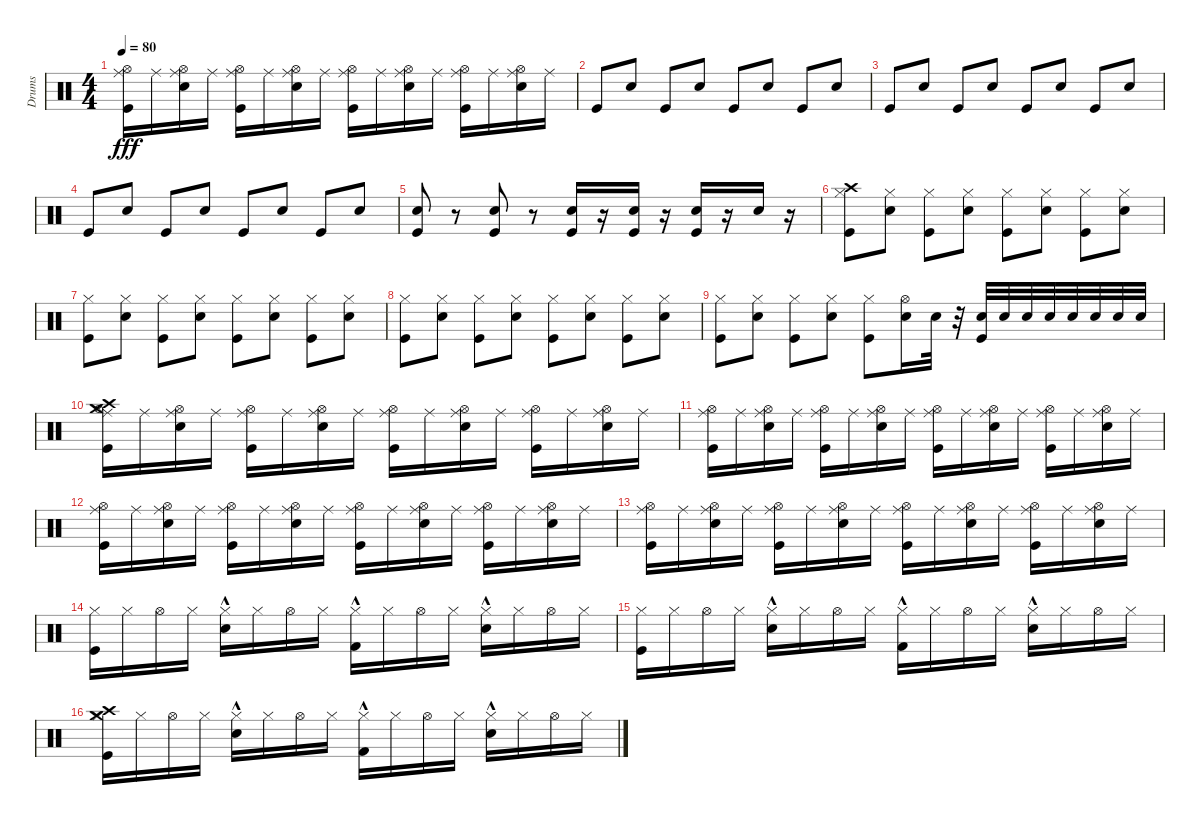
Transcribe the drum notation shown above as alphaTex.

\track ("Drums" "Drums") {instrument percussion}
\staff {score}
\articulation defaults
\ts (4 4)
\tempo 80
\clef neutral
\ks c
("Hi-Hat (open)" "Ride (middle)" "Kick (hit)").16{dy fff} "Ride (middle)".16 ("Snare (hit) 2" "Ride (middle)" "Hi-Hat (open)").16 "Ride (middle)".16 ("Ride (middle)" "Hi-Hat (open)" "Kick (hit)").16 "Ride (middle)".16 ("Ride (middle)" "Hi-Hat (open)" "Snare (hit) 2").16 "Ride (middle)".16 ("Ride (middle)" "Kick (hit)" "Hi-Hat (open)").16 "Ride (middle)".16 ("Hi-Hat (open)" "Ride (middle)" "Snare (hit) 2").16 "Ride (middle)".16 ("Kick (hit)" "Ride (middle)" "Hi-Hat (open)").16 "Ride (middle)".16 ("Snare (hit) 2" "Hi-Hat (open)" "Ride (middle)").16 "Ride (middle)".16 |
"Kick (hit)".8 "Snare (hit) 2".8 "Kick (hit)".8 "Snare (hit) 2".8 "Kick (hit)".8 "Snare (hit) 2".8 "Kick (hit)".8 "Snare (hit) 2".8 |
"Kick (hit)".8 "Snare (hit) 2".8 "Kick (hit)".8 "Snare (hit) 2".8 "Kick (hit)".8 "Snare (hit) 2".8 "Kick (hit)".8 "Snare (hit) 2".8 |
"Kick (hit)".8 "Snare (hit) 2".8 "Kick (hit)".8 "Snare (hit) 2".8 "Kick (hit)".8 "Snare (hit) 2".8 "Kick (hit)".8 "Snare (hit) 2".8 |
("Kick (hit)" "Snare (hit) 2").8 r.8 ("Snare (hit) 2" "Kick (hit)").8 r.8 ("Snare (hit) 2" "Kick (hit)").16 r.16 ("Kick (hit)" "Snare (hit) 2").16 r.16 ("Kick (hit)" "Snare (hit) 2").16 r.16 "Snare (hit) 2".16 r.16 |
("Crash high (hit)" "Kick (hit)" "Hi-Hat (closed)").8 ("Hi-Hat (closed)" "Snare (hit) 2").8 ("Hi-Hat (closed)" "Kick (hit)").8 ("Snare (hit) 2" "Hi-Hat (closed)").8 ("Hi-Hat (closed)" "Kick (hit)").8 ("Hi-Hat (closed)" "Snare (hit) 2").8 ("Hi-Hat (closed)" "Kick (hit)").8 ("Snare (hit) 2" "Hi-Hat (closed)").8 |
("Kick (hit)" "Hi-Hat (closed)").8 ("Snare (hit) 2" "Hi-Hat (closed)").8 ("Kick (hit)" "Hi-Hat (closed)").8 ("Snare (hit) 2" "Hi-Hat (closed)").8 ("Hi-Hat (closed)" "Kick (hit)").8 ("Snare (hit) 2" "Hi-Hat (closed)").8 ("Kick (hit)" "Hi-Hat (closed)").8 ("Snare (hit) 2" "Hi-Hat (closed)").8 |
("Kick (hit)" "Hi-Hat (closed)").8 ("Hi-Hat (closed)" "Snare (hit) 2").8 ("Hi-Hat (closed)" "Kick (hit)").8 ("Hi-Hat (closed)" "Snare (hit) 2").8 ("Hi-Hat (closed)" "Kick (hit)").8 ("Hi-Hat (closed)" "Snare (hit) 2").8 ("Hi-Hat (closed)" "Kick (hit)").8 ("Hi-Hat (closed)" "Snare (hit) 2").8 |
("Hi-Hat (closed)" "Kick (hit)").8 ("Hi-Hat (closed)" "Snare (hit) 2").8 ("Kick (hit)" "Hi-Hat (closed)").8 ("Hi-Hat (closed)" "Snare (hit) 2").8 ("Hi-Hat (closed)" "Kick (hit)").8 ("Hi-Hat (open)" "Snare (hit) 2").16 "Snare (hit) 2".32 r.32 ("Kick (hit)" "Snare (hit) 2").32 "Snare (hit) 2".32 "Snare (hit) 2".32 "Snare (hit) 2".32 "Snare (hit) 2".32 "Snare (hit) 2".32 "Snare (hit) 2".32 "Snare (hit) 2".32 |
("Hi-Hat (open)" "Ride (middle)" "Crash high (hit)" "Crash medium (hit)" "Kick (hit)").16 "Ride (middle)".16 ("Snare (hit) 2" "Ride (middle)" "Hi-Hat (open)").16 "Ride (middle)".16 ("Ride (middle)" "Hi-Hat (open)" "Kick (hit)").16 "Ride (middle)".16 ("Hi-Hat (open)" "Ride (middle)" "Snare (hit) 2").16 "Ride (middle)".16 ("Hi-Hat (open)" "Ride (middle)" "Kick (hit)").16 "Ride (middle)".16 ("Hi-Hat (open)" "Ride (middle)" "Snare (hit) 2").16 "Ride (middle)".16 ("Hi-Hat (open)" "Kick (hit)" "Ride (middle)").16 "Ride (middle)".16 ("Snare (hit) 2" "Ride (middle)" "Hi-Hat (open)").16 "Ride (middle)".16 |
("Hi-Hat (open)" "Ride (middle)" "Kick (hit)").16 "Ride (middle)".16 ("Hi-Hat (open)" "Snare (hit) 2" "Ride (middle)").16 "Ride (middle)".16 ("Kick (hit)" "Hi-Hat (open)" "Ride (middle)").16 "Ride (middle)".16 ("Ride (middle)" "Snare (hit) 2" "Hi-Hat (open)").16 "Ride (middle)".16 ("Ride (middle)" "Hi-Hat (open)" "Kick (hit)").16 "Ride (middle)".16 ("Snare (hit) 2" "Ride (middle)" "Hi-Hat (open)").16 "Ride (middle)".16 ("Kick (hit)" "Ride (middle)" "Hi-Hat (open)").16 "Ride (middle)".16 ("Snare (hit) 2" "Hi-Hat (open)" "Ride (middle)").16 "Ride (middle)".16 |
("Ride (middle)" "Kick (hit)" "Hi-Hat (open)").16 "Ride (middle)".16 ("Hi-Hat (open)" "Snare (hit) 2" "Ride (middle)").16 "Ride (middle)".16 ("Kick (hit)" "Ride (middle)" "Hi-Hat (open)").16 "Ride (middle)".16 ("Ride (middle)" "Hi-Hat (open)" "Snare (hit) 2").16 "Ride (middle)".16 ("Ride (middle)" "Hi-Hat (open)" "Kick (hit)").16 "Ride (middle)".16 ("Hi-Hat (open)" "Ride (middle)" "Snare (hit) 2").16 "Ride (middle)".16 ("Kick (hit)" "Hi-Hat (open)" "Ride (middle)").16 "Ride (middle)".16 ("Ride (middle)" "Hi-Hat (open)" "Snare (hit) 2").16 "Ride (middle)".16 |
("Hi-Hat (open)" "Ride (middle)" "Kick (hit)").16 "Ride (middle)".16 ("Hi-Hat (open)" "Ride (middle)" "Snare (hit) 2").16 "Ride (middle)".16 ("Hi-Hat (open)" "Ride (middle)" "Kick (hit)").16 "Ride (middle)".16 ("Snare (hit) 2" "Hi-Hat (open)" "Ride (middle)").16 "Ride (middle)".16 ("Hi-Hat (open)" "Ride (middle)" "Kick (hit)").16 "Ride (middle)".16 ("Snare (hit) 2" "Hi-Hat (open)" "Ride (middle)").16 "Ride (middle)".16 ("Kick (hit)" "Ride (middle)" "Hi-Hat (open)").16 "Ride (middle)".16 ("Snare (hit) 2" "Hi-Hat (open)" "Ride (middle)").16 "Ride (middle)".16 |
("Hi-Hat (closed)" "Kick (hit)").16 "Hi-Hat (closed)".16 "Hi-Hat (open)".16 "Hi-Hat (closed)".16 ("Hi-Hat (closed)" "Snare (hit) 2"{hac}).16 "Hi-Hat (closed)".16 "Hi-Hat (open)".16 "Hi-Hat (closed)".16 ("Kick (hit) 2"{hac} "Hi-Hat (closed)").16 "Hi-Hat (closed)".16 "Hi-Hat (open)".16 "Hi-Hat (closed)".16 ("Hi-Hat (closed)" "Snare (hit) 2"{hac}).16 "Hi-Hat (closed)".16 "Hi-Hat (open)".16 "Hi-Hat (closed)".16 |
("Hi-Hat (closed)" "Kick (hit)").16 "Hi-Hat (closed)".16 "Hi-Hat (open)".16 "Hi-Hat (closed)".16 ("Hi-Hat (closed)" "Snare (hit) 2"{hac}).16 "Hi-Hat (closed)".16 "Hi-Hat (open)".16 "Hi-Hat (closed)".16 ("Kick (hit) 2"{hac} "Hi-Hat (closed)").16 "Hi-Hat (closed)".16 "Hi-Hat (open)".16 "Hi-Hat (closed)".16 ("Hi-Hat (closed)" "Snare (hit) 2"{hac}).16 "Hi-Hat (closed)".16 "Hi-Hat (open)".16 "Hi-Hat (closed)".16 |
("Hi-Hat (closed)" "Kick (hit)" "Crash medium (hit)" "Crash high (hit)").16 "Hi-Hat (closed)".16 "Hi-Hat (open)".16 "Hi-Hat (closed)".16 ("Hi-Hat (closed)" "Snare (hit) 2"{hac}).16 "Hi-Hat (closed)".16 "Hi-Hat (open)".16 "Hi-Hat (closed)".16 ("Hi-Hat (closed)" "Kick (hit) 2"{hac}).16 "Hi-Hat (closed)".16 "Hi-Hat (open)".16 "Hi-Hat (closed)".16 ("Hi-Hat (closed)" "Snare (hit) 2"{hac}).16 "Hi-Hat (closed)".16 "Hi-Hat (open)".16 "Hi-Hat (closed)".16
